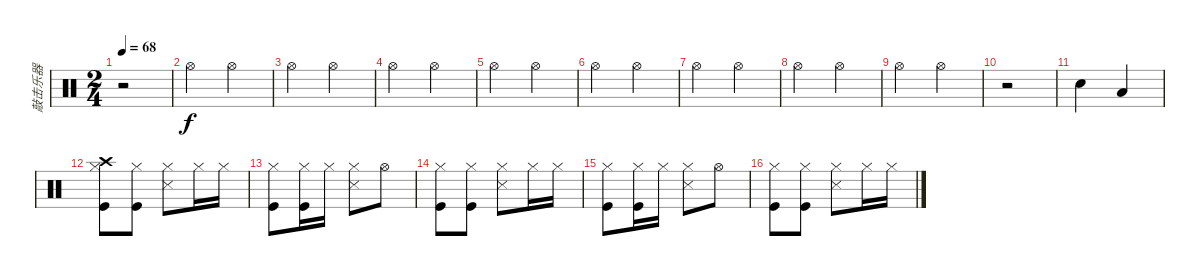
\track ("敲击乐器" "敲击乐器") {instrument percussion}
\staff {score}
\articulation defaults
\ts (2 4)
\tempo 68
\clef neutral
\ks c
r.2{dy f} |
"Hi-Hat (open)".4 "Hi-Hat (open)".4 |
"Hi-Hat (open)".4 "Hi-Hat (open)".4 |
"Hi-Hat (open)".4 "Hi-Hat (open)".4 |
"Hi-Hat (open)".4 "Hi-Hat (open)".4 |
"Hi-Hat (open)".4 "Hi-Hat (open)".4 |
"Hi-Hat (open)".4 "Hi-Hat (open)".4 |
"Hi-Hat (open)".4 "Hi-Hat (open)".4 |
"Hi-Hat (open)".4 "Hi-Hat (open)".4 |
r.2 |
"Snare (hit) 2".4 "Low Tom (hit)".4 |
("Hi-Hat (closed)" "Kick (hit)" "Crash high (hit)").8 ("Hi-Hat (closed)" "Kick (hit)").8 ("Hi-Hat (closed)" "Snare (side stick) 3").8 "Hi-Hat (closed)".16 "Hi-Hat (closed)".16 |
("Hi-Hat (closed)" "Kick (hit)").8 ("Hi-Hat (closed)" "Kick (hit)").16 "Hi-Hat (closed)".16 ("Hi-Hat (closed)" "Snare (side stick) 3").8 "Hi-Hat (open)".8 |
("Hi-Hat (closed)" "Kick (hit)").8 ("Hi-Hat (closed)" "Kick (hit)").8 ("Hi-Hat (closed)" "Snare (side stick) 3").8 "Hi-Hat (closed)".16 "Hi-Hat (closed)".16 |
("Hi-Hat (closed)" "Kick (hit)").8 ("Hi-Hat (closed)" "Kick (hit)").16 "Hi-Hat (closed)".16 ("Hi-Hat (closed)" "Snare (side stick) 3").8 "Hi-Hat (open)".8 |
("Hi-Hat (closed)" "Kick (hit)").8 ("Hi-Hat (closed)" "Kick (hit)").8 ("Hi-Hat (closed)" "Snare (side stick) 3").8 "Hi-Hat (closed)".16 "Hi-Hat (closed)".16
